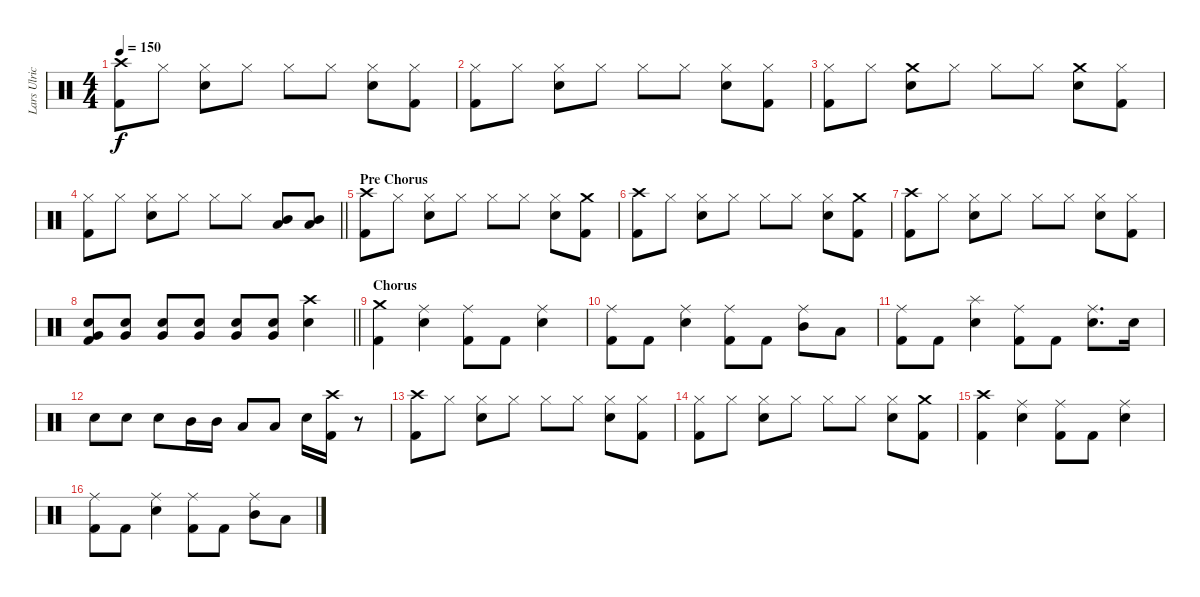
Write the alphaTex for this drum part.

\track ("Lars Ulrich" "Lars Ulric") {instrument percussion}
\staff {score}
\articulation defaults
\ts (4 4)
\tempo 150
\clef neutral
\ks c
("Crash high (hit)" "Kick (hit) 2").8{dy f} "Hi-Hat (closed)".8 ("Hi-Hat (closed)" "Snare (hit) 2").8 "Hi-Hat (closed)".8 "Hi-Hat (closed)".8 "Hi-Hat (closed)".8 ("Hi-Hat (closed)" "Snare (hit) 2").8 ("Hi-Hat (closed)" "Kick (hit) 2").8 |
("Hi-Hat (closed)" "Kick (hit) 2").8 "Hi-Hat (closed)".8 ("Hi-Hat (closed)" "Snare (hit) 2").8 "Hi-Hat (closed)".8 "Hi-Hat (closed)".8 "Hi-Hat (closed)".8 ("Hi-Hat (closed)" "Snare (hit) 2").8 ("Hi-Hat (closed)" "Kick (hit) 2").8 |
("Hi-Hat (closed)" "Kick (hit) 2").8 "Hi-Hat (closed)".8 ("Crash medium (hit)" "Snare (hit) 2").8 "Hi-Hat (closed)".8 "Hi-Hat (closed)".8 "Hi-Hat (closed)".8 ("Crash medium (hit)" "Snare (hit) 2").8 ("Hi-Hat (closed)" "Kick (hit) 2").8 |
\barLineRight lightlight
("Hi-Hat (closed)" "Kick (hit) 2").8 "Hi-Hat (closed)".8 ("Hi-Hat (closed)" "Snare (hit) 2").8 "Hi-Hat (closed)".8 "Hi-Hat (closed)".8 "Hi-Hat (closed)".8 ("Low Tom (hit)" "Mid Tom (hit)").8 ("Low Tom (hit)" "Mid Tom (hit)").8 |
\section ("" "Pre Chorus")
("Crash high (hit)" "Kick (hit) 2").8 "Hi-Hat (closed)".8 ("Hi-Hat (closed)" "Snare (hit) 2").8 "Hi-Hat (closed)".8 "Hi-Hat (closed)".8 "Hi-Hat (closed)".8 ("Hi-Hat (closed)" "Snare (hit) 2").8 ("Crash medium (hit)" "Kick (hit) 2").8 |
("Crash high (hit)" "Kick (hit) 2").8 "Hi-Hat (closed)".8 ("Hi-Hat (closed)" "Snare (hit) 2").8 "Hi-Hat (closed)".8 "Hi-Hat (closed)".8 "Hi-Hat (closed)".8 ("Hi-Hat (closed)" "Snare (hit) 2").8 ("Crash medium (hit)" "Kick (hit) 2").8 |
("Crash high (hit)" "Kick (hit) 2").8 "Hi-Hat (closed)".8 ("Hi-Hat (closed)" "Snare (hit) 2").8 "Hi-Hat (closed)".8 "Hi-Hat (closed)".8 "Hi-Hat (closed)".8 ("Hi-Hat (closed)" "Snare (hit) 2").8 ("Hi-Hat (closed)" "Kick (hit) 2").8 |
\barLineRight lightlight
("Very Low Tom (hit)" "Snare (hit) 2" "Kick (hit) 2").8 ("Very Low Tom (hit)" "Snare (hit) 2").8 ("Very Low Tom (hit)" "Snare (hit) 2").8 ("Very Low Tom (hit)" "Snare (hit) 2").8 ("Very Low Tom (hit)" "Snare (hit) 2").8 ("Very Low Tom (hit)" "Snare (hit) 2").8 ("Crash high (hit)" "Snare (hit) 2").4 |
\section ("" "Chorus")
("Crash medium (hit)" "Kick (hit) 2").4 ("Ride (middle)" "Snare (hit) 2").4 ("Ride (middle)" "Kick (hit) 2").8 "Kick (hit) 2".8 ("Ride (middle)" "Snare (hit) 2").4 |
("Ride (middle)" "Kick (hit) 2").8 "Kick (hit) 2".8 ("Ride (middle)" "Snare (hit) 2").4 ("Ride (middle)" "Kick (hit) 2").8 "Kick (hit) 2".8 ("Ride (middle)" "Mid Tom (hit)").8 "Low Tom (hit)".8 |
("Ride (middle)" "Kick (hit) 2").8 "Kick (hit) 2".8 ("Splash (hit)" "Snare (hit) 2").4 ("Ride (middle)" "Kick (hit) 2").8 "Kick (hit) 2".8 ("Ride (middle)" "Snare (hit) 2").8{d} "Snare (hit) 2".16 |
"Snare (hit) 2".8 "Snare (hit) 2".8 "Snare (hit) 2".8 "Mid Tom (hit)".16 "Mid Tom (hit)".16 "Low Tom (hit)".8 "Low Tom (hit)".8 "Snare (hit) 2".16 ("Crash high (hit)" "Kick (hit) 2").16 r.8 |
("Crash high (hit)" "Kick (hit) 2").8 "Hi-Hat (closed)".8 ("Hi-Hat (closed)" "Snare (hit) 2").8 "Hi-Hat (closed)".8 "Hi-Hat (closed)".8 "Hi-Hat (closed)".8 ("Hi-Hat (closed)" "Snare (hit) 2").8 ("Hi-Hat (closed)" "Kick (hit) 2").8 |
("Hi-Hat (closed)" "Kick (hit) 2").8 "Hi-Hat (closed)".8 ("Hi-Hat (closed)" "Snare (hit) 2").8 "Hi-Hat (closed)".8 "Hi-Hat (closed)".8 "Hi-Hat (closed)".8 ("Hi-Hat (closed)" "Snare (hit) 2").8 ("Crash medium (hit)" "Kick (hit) 2").8 |
("Crash high (hit)" "Kick (hit) 2").4 ("Ride (middle)" "Snare (hit) 2").4 ("Ride (middle)" "Kick (hit) 2").8 "Kick (hit) 2".8 ("Ride (middle)" "Snare (hit) 2").4 |
("Ride (middle)" "Kick (hit) 2").8 "Kick (hit) 2".8 ("Ride (middle)" "Snare (hit) 2").4 ("Ride (middle)" "Kick (hit) 2").8 "Kick (hit) 2".8 ("Ride (middle)" "Mid Tom (hit)").8 "Low Tom (hit)".8
